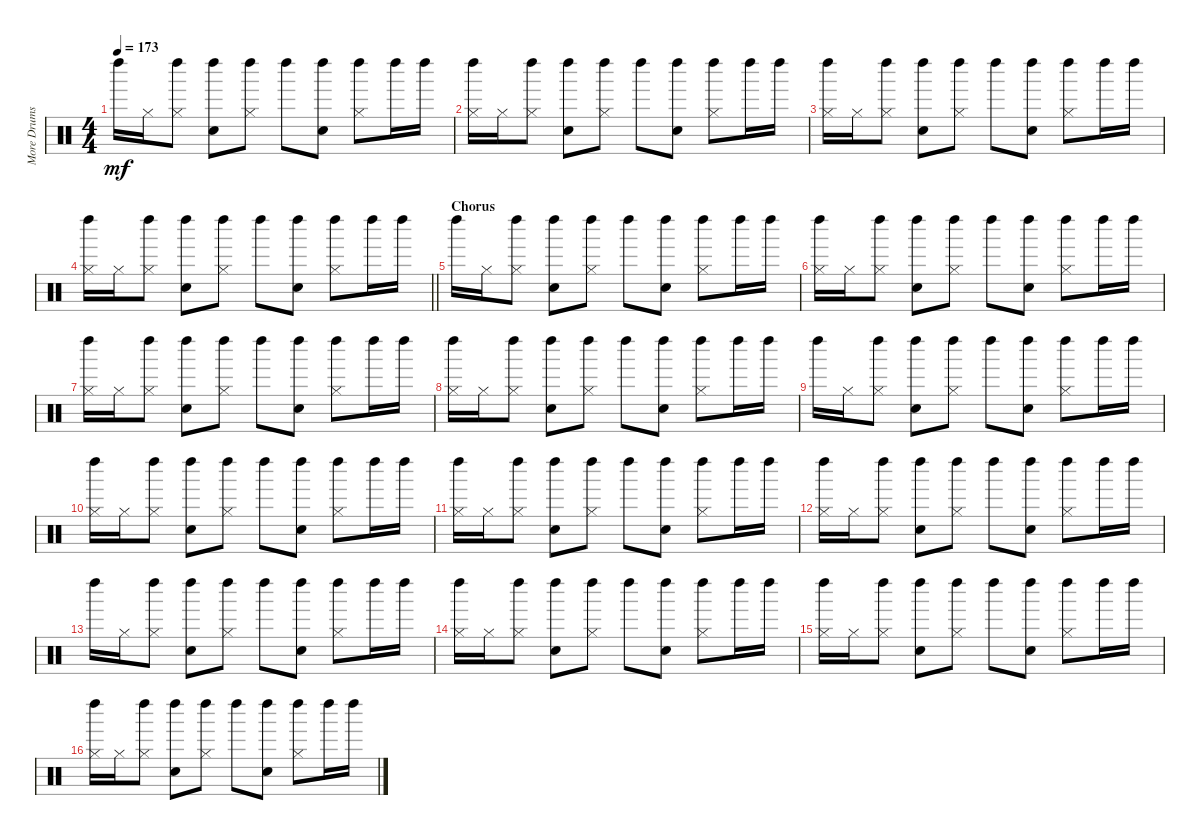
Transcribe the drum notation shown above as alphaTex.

\track ("More Drums" "More Drums") {instrument percussion}
\staff {score}
\articulation defaults
\ts (4 4)
\tempo 173
\clef neutral
\ks c "Left Maraca (hit)".16{dy mf} "Hi-Hat (closed)".16
("Hi-Hat (closed)" "Left Maraca (hit)").8 ("Snare (hit) 2" "Left Maraca (hit)").8 ("Hi-Hat (closed)" "Left Maraca (hit)").8 "Left Maraca (hit)".8 ("Snare (hit) 2" "Left Maraca (hit)").8 ("Hi-Hat (closed)" "Left Maraca (hit)").8 "Left Maraca (hit)".16 "Left Maraca (hit)".16 |
("Hi-Hat (closed)" "Left Maraca (hit)").16 "Hi-Hat (closed)".16 ("Hi-Hat (closed)" "Left Maraca (hit)").8 ("Snare (hit) 2" "Left Maraca (hit)").8 ("Hi-Hat (closed)" "Left Maraca (hit)").8 "Left Maraca (hit)".8 ("Snare (hit) 2" "Left Maraca (hit)").8 ("Hi-Hat (closed)" "Left Maraca (hit)").8 "Left Maraca (hit)".16 "Left Maraca (hit)".16 |
("Hi-Hat (closed)" "Left Maraca (hit)").16 "Hi-Hat (closed)".16 ("Hi-Hat (closed)" "Left Maraca (hit)").8 ("Snare (hit) 2" "Left Maraca (hit)").8 ("Hi-Hat (closed)" "Left Maraca (hit)").8 "Left Maraca (hit)".8 ("Snare (hit) 2" "Left Maraca (hit)").8 ("Hi-Hat (closed)" "Left Maraca (hit)").8 "Left Maraca (hit)".16 "Left Maraca (hit)".16 |
\barLineRight lightlight
("Hi-Hat (closed)" "Left Maraca (hit)").16 "Hi-Hat (closed)".16 ("Hi-Hat (closed)" "Left Maraca (hit)").8 ("Snare (hit) 2" "Left Maraca (hit)").8 ("Hi-Hat (closed)" "Left Maraca (hit)").8 "Left Maraca (hit)".8 ("Snare (hit) 2" "Left Maraca (hit)").8 ("Hi-Hat (closed)" "Left Maraca (hit)").8 "Left Maraca (hit)".16 "Left Maraca (hit)".16 |
\section ("" "Chorus")
"Left Maraca (hit)".16 "Hi-Hat (closed)".16 ("Hi-Hat (closed)" "Left Maraca (hit)").8 ("Snare (hit) 2" "Left Maraca (hit)").8 ("Hi-Hat (closed)" "Left Maraca (hit)").8 "Left Maraca (hit)".8 ("Snare (hit) 2" "Left Maraca (hit)").8 ("Hi-Hat (closed)" "Left Maraca (hit)").8 "Left Maraca (hit)".16 "Left Maraca (hit)".16 |
("Hi-Hat (closed)" "Left Maraca (hit)").16 "Hi-Hat (closed)".16 ("Hi-Hat (closed)" "Left Maraca (hit)").8 ("Snare (hit) 2" "Left Maraca (hit)").8 ("Hi-Hat (closed)" "Left Maraca (hit)").8 "Left Maraca (hit)".8 ("Snare (hit) 2" "Left Maraca (hit)").8 ("Hi-Hat (closed)" "Left Maraca (hit)").8 "Left Maraca (hit)".16 "Left Maraca (hit)".16 |
("Hi-Hat (closed)" "Left Maraca (hit)").16 "Hi-Hat (closed)".16 ("Hi-Hat (closed)" "Left Maraca (hit)").8 ("Snare (hit) 2" "Left Maraca (hit)").8 ("Hi-Hat (closed)" "Left Maraca (hit)").8 "Left Maraca (hit)".8 ("Snare (hit) 2" "Left Maraca (hit)").8 ("Hi-Hat (closed)" "Left Maraca (hit)").8 "Left Maraca (hit)".16 "Left Maraca (hit)".16 |
("Hi-Hat (closed)" "Left Maraca (hit)").16 "Hi-Hat (closed)".16 ("Hi-Hat (closed)" "Left Maraca (hit)").8 ("Snare (hit) 2" "Left Maraca (hit)").8 ("Hi-Hat (closed)" "Left Maraca (hit)").8 "Left Maraca (hit)".8 ("Snare (hit) 2" "Left Maraca (hit)").8 ("Hi-Hat (closed)" "Left Maraca (hit)").8 "Left Maraca (hit)".16 "Left Maraca (hit)".16 |
"Left Maraca (hit)".16 "Hi-Hat (closed)".16 ("Hi-Hat (closed)" "Left Maraca (hit)").8 ("Snare (hit) 2" "Left Maraca (hit)").8 ("Hi-Hat (closed)" "Left Maraca (hit)").8 "Left Maraca (hit)".8 ("Snare (hit) 2" "Left Maraca (hit)").8 ("Hi-Hat (closed)" "Left Maraca (hit)").8 "Left Maraca (hit)".16 "Left Maraca (hit)".16 |
("Hi-Hat (closed)" "Left Maraca (hit)").16 "Hi-Hat (closed)".16 ("Hi-Hat (closed)" "Left Maraca (hit)").8 ("Snare (hit) 2" "Left Maraca (hit)").8 ("Hi-Hat (closed)" "Left Maraca (hit)").8 "Left Maraca (hit)".8 ("Snare (hit) 2" "Left Maraca (hit)").8 ("Hi-Hat (closed)" "Left Maraca (hit)").8 "Left Maraca (hit)".16 "Left Maraca (hit)".16 |
("Hi-Hat (closed)" "Left Maraca (hit)").16 "Hi-Hat (closed)".16 ("Hi-Hat (closed)" "Left Maraca (hit)").8 ("Snare (hit) 2" "Left Maraca (hit)").8 ("Hi-Hat (closed)" "Left Maraca (hit)").8 "Left Maraca (hit)".8 ("Snare (hit) 2" "Left Maraca (hit)").8 ("Hi-Hat (closed)" "Left Maraca (hit)").8 "Left Maraca (hit)".16 "Left Maraca (hit)".16 |
("Hi-Hat (closed)" "Left Maraca (hit)").16 "Hi-Hat (closed)".16 ("Hi-Hat (closed)" "Left Maraca (hit)").8 ("Snare (hit) 2" "Left Maraca (hit)").8 ("Hi-Hat (closed)" "Left Maraca (hit)").8 "Left Maraca (hit)".8 ("Snare (hit) 2" "Left Maraca (hit)").8 ("Hi-Hat (closed)" "Left Maraca (hit)").8 "Left Maraca (hit)".16 "Left Maraca (hit)".16 |
"Left Maraca (hit)".16 "Hi-Hat (closed)".16 ("Hi-Hat (closed)" "Left Maraca (hit)").8 ("Snare (hit) 2" "Left Maraca (hit)").8 ("Hi-Hat (closed)" "Left Maraca (hit)").8 "Left Maraca (hit)".8 ("Snare (hit) 2" "Left Maraca (hit)").8 ("Hi-Hat (closed)" "Left Maraca (hit)").8 "Left Maraca (hit)".16 "Left Maraca (hit)".16 |
("Hi-Hat (closed)" "Left Maraca (hit)").16 "Hi-Hat (closed)".16 ("Hi-Hat (closed)" "Left Maraca (hit)").8 ("Snare (hit) 2" "Left Maraca (hit)").8 ("Hi-Hat (closed)" "Left Maraca (hit)").8 "Left Maraca (hit)".8 ("Snare (hit) 2" "Left Maraca (hit)").8 ("Hi-Hat (closed)" "Left Maraca (hit)").8 "Left Maraca (hit)".16 "Left Maraca (hit)".16 |
("Hi-Hat (closed)" "Left Maraca (hit)").16 "Hi-Hat (closed)".16 ("Hi-Hat (closed)" "Left Maraca (hit)").8 ("Snare (hit) 2" "Left Maraca (hit)").8 ("Hi-Hat (closed)" "Left Maraca (hit)").8 "Left Maraca (hit)".8 ("Snare (hit) 2" "Left Maraca (hit)").8 ("Hi-Hat (closed)" "Left Maraca (hit)").8 "Left Maraca (hit)".16 "Left Maraca (hit)".16 |
("Hi-Hat (closed)" "Left Maraca (hit)").16 "Hi-Hat (closed)".16 ("Hi-Hat (closed)" "Left Maraca (hit)").8 ("Snare (hit) 2" "Left Maraca (hit)").8 ("Hi-Hat (closed)" "Left Maraca (hit)").8 "Left Maraca (hit)".8 ("Snare (hit) 2" "Left Maraca (hit)").8 ("Hi-Hat (closed)" "Left Maraca (hit)").8 "Left Maraca (hit)".16 "Left Maraca (hit)".16
